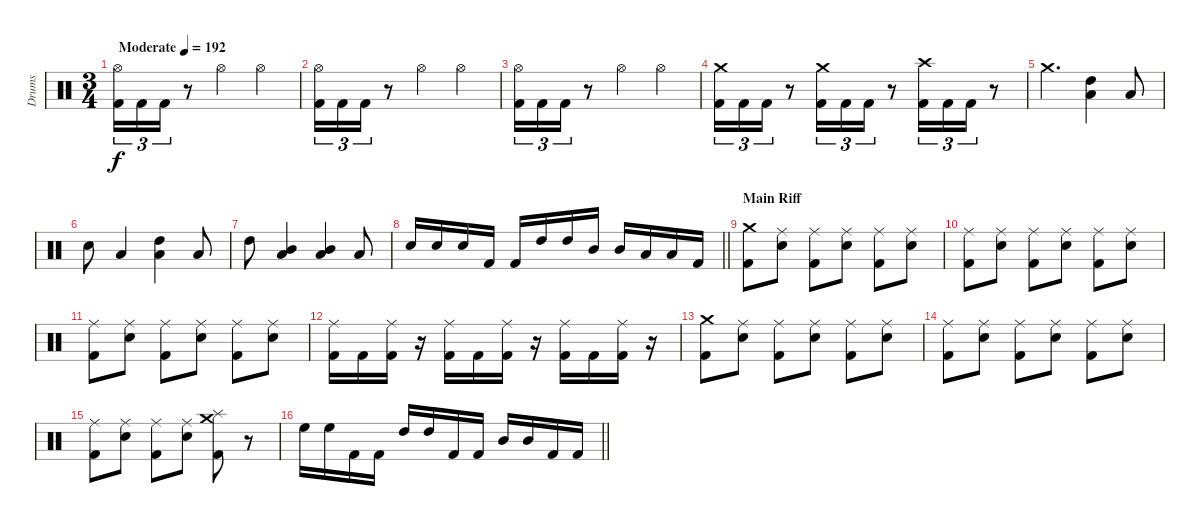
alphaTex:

\track ("Drums" "Drums") {instrument percussion}
\staff {score}
\articulation defaults
\ts (3 4)
\tempo (192 "Moderate")
\clef neutral
\ks c
("Hi-Hat (open)" "Kick (hit) 2").16{tu (3 2) dy f} "Kick (hit) 2".16{tu (3 2)} "Kick (hit) 2".16{tu (3 2)} r.8 "Hi-Hat (open)".4 "Hi-Hat (open)".4 |
("Hi-Hat (open)" "Kick (hit) 2").16{tu (3 2)} "Kick (hit) 2".16{tu (3 2)} "Kick (hit) 2".16{tu (3 2)} r.8 "Hi-Hat (open)".4 "Hi-Hat (open)".4 |
("Hi-Hat (open)" "Kick (hit) 2").16{tu (3 2)} "Kick (hit) 2".16{tu (3 2)} "Kick (hit) 2".16{tu (3 2)} r.8 "Hi-Hat (open)".4 "Hi-Hat (open)".4 |
("Crash medium (hit)" "Kick (hit) 2").16{tu (3 2)} "Kick (hit) 2".16{tu (3 2)} "Kick (hit) 2".16{tu (3 2)} r.8 ("Crash medium (hit)" "Kick (hit) 2").16{tu (3 2)} "Kick (hit) 2".16{tu (3 2)} "Kick (hit) 2".16{tu (3 2)} r.8 ("Crash high (hit)" "Kick (hit) 2").16{tu (3 2)} "Kick (hit) 2".16{tu (3 2)} "Kick (hit) 2".16{tu (3 2)} r.8 |
"Crash medium (hit)".4{d} ("High Tom (hit)" "Low Tom (hit)").4 "Low Tom (hit)".8 |
"Electric Snare (hit)".8 "Low Tom (hit)".4 ("High Tom (hit)" "Low Tom (hit)").4 "Low Tom (hit)".8 |
"High Tom (hit)".8 ("Mid Tom (hit)" "Low Tom (hit)").4 ("Mid Tom (hit)" "Low Tom (hit)").4 "Low Tom (hit)".8 |
\barLineRight lightlight "Electric Snare (hit)".16 "Electric Snare (hit)".16 "Electric Snare (hit)".16 "Kick (hit) 2".16 "Kick (hit) 2".16 "High Tom (hit)".16 "High Tom (hit)".16 "Mid Tom (hit)".16 "Mid Tom (hit)".16 "Low Tom (hit)".16 "Low Tom (hit)".16 "Kick (hit) 2".16
|
\section ("" "Main Riff")
("Crash medium (hit)" "Kick (hit) 2").8 ("Ride (middle)" "Electric Snare (hit)").8 ("Ride (middle)" "Kick (hit) 2").8 ("Ride (middle)" "Electric Snare (hit)").8 ("Ride (middle)" "Kick (hit) 2").8 ("Ride (middle)" "Electric Snare (hit)").8 |
("Ride (middle)" "Kick (hit) 2").8 ("Ride (middle)" "Electric Snare (hit)").8 ("Ride (middle)" "Kick (hit) 2").8 ("Ride (middle)" "Electric Snare (hit)").8 ("Ride (middle)" "Kick (hit) 2").8 ("Ride (middle)" "Electric Snare (hit)").8 |
("Ride (middle)" "Kick (hit) 2").8 ("Ride (middle)" "Electric Snare (hit)").8 ("Ride (middle)" "Kick (hit) 2").8 ("Ride (middle)" "Electric Snare (hit)").8 ("Ride (middle)" "Kick (hit) 2").8 ("Ride (middle)" "Electric Snare (hit)").8 |
("Ride (middle)" "Kick (hit) 2").16 "Kick (hit) 2".16 ("Ride (middle)" "Kick (hit) 2").16 r.16 ("Ride (middle)" "Kick (hit) 2").16 "Kick (hit) 2".16 ("Ride (middle)" "Kick (hit) 2").16 r.16 ("Ride (middle)" "Kick (hit) 2").16 "Kick (hit) 2".16 ("Ride (middle)" "Kick (hit) 2").16 r.16 |
("Crash medium (hit)" "Kick (hit) 2").8 ("Ride (middle)" "Electric Snare (hit)").8 ("Ride (middle)" "Kick (hit) 2").8 ("Ride (middle)" "Electric Snare (hit)").8 ("Ride (middle)" "Kick (hit) 2").8 ("Ride (middle)" "Electric Snare (hit)").8 |
("Ride (middle)" "Kick (hit) 2").8 ("Ride (middle)" "Electric Snare (hit)").8 ("Ride (middle)" "Kick (hit) 2").8 ("Ride (middle)" "Electric Snare (hit)").8 ("Ride (middle)" "Kick (hit) 2").8 ("Ride (middle)" "Electric Snare (hit)").8 |
("Ride (middle)" "Kick (hit) 2").8 ("Ride (middle)" "Electric Snare (hit)").8 ("Ride (middle)" "Kick (hit) 2").8 ("Ride (middle)" "Electric Snare (hit)").8 ("Splash (hit)" "Crash medium (hit)" "Kick (hit) 2").8 r.8 |
\barLineRight lightlight "High Floor Tom (hit)".16 "High Floor Tom (hit)".16 "Kick (hit) 2".16 "Kick (hit) 2".16 "High Tom (hit)".16 "High Tom (hit)".16 "Kick (hit) 2".16 "Kick (hit) 2".16 "Mid Tom (hit)".16 "Mid Tom (hit)".16 "Kick (hit) 2".16 "Kick (hit) 2".16
